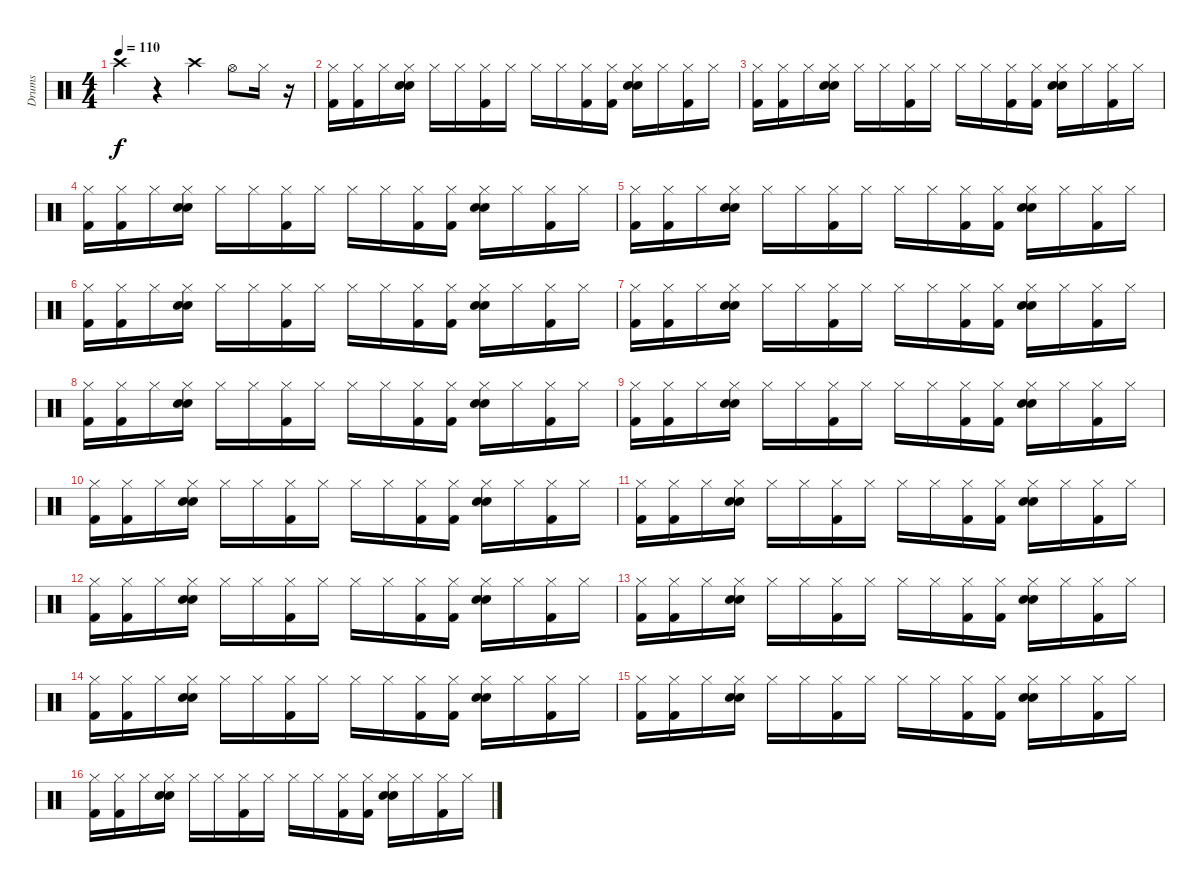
\track ("Drums" "Drums") {instrument percussion}
\staff {score}
\articulation defaults
\ts (4 4)
\tempo 110
\clef neutral
\ks c "Crash high (hit)".4{dy f}
r.4 "Crash high (hit)".4 "Hi-Hat (open)".8 "Hi-Hat (closed)".16 r.16 |
("Hi-Hat (closed)" "Kick (hit) 2").16 ("Hi-Hat (closed)" "Kick (hit) 2").16 "Hi-Hat (closed)".16 ("Hi-Hat (closed)" "Electric Snare (hit)" "Snare (hit) 2").16 "Hi-Hat (closed)".16 "Hi-Hat (closed)".16 ("Hi-Hat (closed)" "Kick (hit) 2").16 "Hi-Hat (closed)".16 "Hi-Hat (closed)".16 "Hi-Hat (closed)".16 ("Hi-Hat (closed)" "Kick (hit) 2").16 ("Hi-Hat (closed)" "Kick (hit) 2").16 ("Hi-Hat (closed)" "Electric Snare (hit)" "Snare (hit) 2").16 "Hi-Hat (closed)".16 ("Hi-Hat (closed)" "Kick (hit) 2").16 "Hi-Hat (closed)".16 |
("Hi-Hat (closed)" "Kick (hit) 2").16 ("Hi-Hat (closed)" "Kick (hit) 2").16 "Hi-Hat (closed)".16 ("Hi-Hat (closed)" "Electric Snare (hit)" "Snare (hit) 2").16 "Hi-Hat (closed)".16 "Hi-Hat (closed)".16 ("Hi-Hat (closed)" "Kick (hit) 2").16 "Hi-Hat (closed)".16 "Hi-Hat (closed)".16 "Hi-Hat (closed)".16 ("Hi-Hat (closed)" "Kick (hit) 2").16 ("Hi-Hat (closed)" "Kick (hit) 2").16 ("Hi-Hat (closed)" "Electric Snare (hit)" "Snare (hit) 2").16 "Hi-Hat (closed)".16 ("Hi-Hat (closed)" "Kick (hit) 2").16 "Hi-Hat (closed)".16 |
("Hi-Hat (closed)" "Kick (hit) 2").16 ("Hi-Hat (closed)" "Kick (hit) 2").16 "Hi-Hat (closed)".16 ("Hi-Hat (closed)" "Electric Snare (hit)" "Snare (hit) 2").16 "Hi-Hat (closed)".16 "Hi-Hat (closed)".16 ("Hi-Hat (closed)" "Kick (hit) 2").16 "Hi-Hat (closed)".16 "Hi-Hat (closed)".16 "Hi-Hat (closed)".16 ("Hi-Hat (closed)" "Kick (hit) 2").16 ("Hi-Hat (closed)" "Kick (hit) 2").16 ("Hi-Hat (closed)" "Electric Snare (hit)" "Snare (hit) 2").16 "Hi-Hat (closed)".16 ("Hi-Hat (closed)" "Kick (hit) 2").16 "Hi-Hat (closed)".16 |
("Hi-Hat (closed)" "Kick (hit) 2").16 ("Hi-Hat (closed)" "Kick (hit) 2").16 "Hi-Hat (closed)".16 ("Hi-Hat (closed)" "Electric Snare (hit)" "Snare (hit) 2").16 "Hi-Hat (closed)".16 "Hi-Hat (closed)".16 ("Hi-Hat (closed)" "Kick (hit) 2").16 "Hi-Hat (closed)".16 "Hi-Hat (closed)".16 "Hi-Hat (closed)".16 ("Hi-Hat (closed)" "Kick (hit) 2").16 ("Hi-Hat (closed)" "Kick (hit) 2").16 ("Hi-Hat (closed)" "Electric Snare (hit)" "Snare (hit) 2").16 "Hi-Hat (closed)".16 ("Hi-Hat (closed)" "Kick (hit) 2").16 "Hi-Hat (closed)".16 |
("Hi-Hat (closed)" "Kick (hit) 2").16 ("Hi-Hat (closed)" "Kick (hit) 2").16 "Hi-Hat (closed)".16 ("Hi-Hat (closed)" "Electric Snare (hit)" "Snare (hit) 2").16 "Hi-Hat (closed)".16 "Hi-Hat (closed)".16 ("Hi-Hat (closed)" "Kick (hit) 2").16 "Hi-Hat (closed)".16 "Hi-Hat (closed)".16 "Hi-Hat (closed)".16 ("Hi-Hat (closed)" "Kick (hit) 2").16 ("Hi-Hat (closed)" "Kick (hit) 2").16 ("Hi-Hat (closed)" "Electric Snare (hit)" "Snare (hit) 2").16 "Hi-Hat (closed)".16 ("Hi-Hat (closed)" "Kick (hit) 2").16 "Hi-Hat (closed)".16 |
("Hi-Hat (closed)" "Kick (hit) 2").16 ("Hi-Hat (closed)" "Kick (hit) 2").16 "Hi-Hat (closed)".16 ("Hi-Hat (closed)" "Electric Snare (hit)" "Snare (hit) 2").16 "Hi-Hat (closed)".16 "Hi-Hat (closed)".16 ("Hi-Hat (closed)" "Kick (hit) 2").16 "Hi-Hat (closed)".16 "Hi-Hat (closed)".16 "Hi-Hat (closed)".16 ("Hi-Hat (closed)" "Kick (hit) 2").16 ("Hi-Hat (closed)" "Kick (hit) 2").16 ("Hi-Hat (closed)" "Electric Snare (hit)" "Snare (hit) 2").16 "Hi-Hat (closed)".16 ("Hi-Hat (closed)" "Kick (hit) 2").16 "Hi-Hat (closed)".16 |
("Hi-Hat (closed)" "Kick (hit) 2").16 ("Hi-Hat (closed)" "Kick (hit) 2").16 "Hi-Hat (closed)".16 ("Hi-Hat (closed)" "Electric Snare (hit)" "Snare (hit) 2").16 "Hi-Hat (closed)".16 "Hi-Hat (closed)".16 ("Hi-Hat (closed)" "Kick (hit) 2").16 "Hi-Hat (closed)".16 "Hi-Hat (closed)".16 "Hi-Hat (closed)".16 ("Hi-Hat (closed)" "Kick (hit) 2").16 ("Hi-Hat (closed)" "Kick (hit) 2").16 ("Hi-Hat (closed)" "Electric Snare (hit)" "Snare (hit) 2").16 "Hi-Hat (closed)".16 ("Hi-Hat (closed)" "Kick (hit) 2").16 "Hi-Hat (closed)".16 |
("Hi-Hat (closed)" "Kick (hit) 2").16 ("Hi-Hat (closed)" "Kick (hit) 2").16 "Hi-Hat (closed)".16 ("Hi-Hat (closed)" "Electric Snare (hit)" "Snare (hit) 2").16 "Hi-Hat (closed)".16 "Hi-Hat (closed)".16 ("Hi-Hat (closed)" "Kick (hit) 2").16 "Hi-Hat (closed)".16 "Hi-Hat (closed)".16 "Hi-Hat (closed)".16 ("Hi-Hat (closed)" "Kick (hit) 2").16 ("Hi-Hat (closed)" "Kick (hit) 2").16 ("Hi-Hat (closed)" "Electric Snare (hit)" "Snare (hit) 2").16 "Hi-Hat (closed)".16 ("Hi-Hat (closed)" "Kick (hit) 2").16 "Hi-Hat (closed)".16 |
("Hi-Hat (closed)" "Kick (hit) 2").16 ("Hi-Hat (closed)" "Kick (hit) 2").16 "Hi-Hat (closed)".16 ("Hi-Hat (closed)" "Electric Snare (hit)" "Snare (hit) 2").16 "Hi-Hat (closed)".16 "Hi-Hat (closed)".16 ("Hi-Hat (closed)" "Kick (hit) 2").16 "Hi-Hat (closed)".16 "Hi-Hat (closed)".16 "Hi-Hat (closed)".16 ("Hi-Hat (closed)" "Kick (hit) 2").16 ("Hi-Hat (closed)" "Kick (hit) 2").16 ("Hi-Hat (closed)" "Electric Snare (hit)" "Snare (hit) 2").16 "Hi-Hat (closed)".16 ("Hi-Hat (closed)" "Kick (hit) 2").16 "Hi-Hat (closed)".16 |
("Hi-Hat (closed)" "Kick (hit) 2").16 ("Hi-Hat (closed)" "Kick (hit) 2").16 "Hi-Hat (closed)".16 ("Hi-Hat (closed)" "Electric Snare (hit)" "Snare (hit) 2").16 "Hi-Hat (closed)".16 "Hi-Hat (closed)".16 ("Hi-Hat (closed)" "Kick (hit) 2").16 "Hi-Hat (closed)".16 "Hi-Hat (closed)".16 "Hi-Hat (closed)".16 ("Hi-Hat (closed)" "Kick (hit) 2").16 ("Hi-Hat (closed)" "Kick (hit) 2").16 ("Hi-Hat (closed)" "Electric Snare (hit)" "Snare (hit) 2").16 "Hi-Hat (closed)".16 ("Hi-Hat (closed)" "Kick (hit) 2").16 "Hi-Hat (closed)".16 |
("Hi-Hat (closed)" "Kick (hit) 2").16 ("Hi-Hat (closed)" "Kick (hit) 2").16 "Hi-Hat (closed)".16 ("Hi-Hat (closed)" "Electric Snare (hit)" "Snare (hit) 2").16 "Hi-Hat (closed)".16 "Hi-Hat (closed)".16 ("Hi-Hat (closed)" "Kick (hit) 2").16 "Hi-Hat (closed)".16 "Hi-Hat (closed)".16 "Hi-Hat (closed)".16 ("Hi-Hat (closed)" "Kick (hit) 2").16 ("Hi-Hat (closed)" "Kick (hit) 2").16 ("Hi-Hat (closed)" "Electric Snare (hit)" "Snare (hit) 2").16 "Hi-Hat (closed)".16 ("Hi-Hat (closed)" "Kick (hit) 2").16 "Hi-Hat (closed)".16 |
("Hi-Hat (closed)" "Kick (hit) 2").16 ("Hi-Hat (closed)" "Kick (hit) 2").16 "Hi-Hat (closed)".16 ("Hi-Hat (closed)" "Electric Snare (hit)" "Snare (hit) 2").16 "Hi-Hat (closed)".16 "Hi-Hat (closed)".16 ("Hi-Hat (closed)" "Kick (hit) 2").16 "Hi-Hat (closed)".16 "Hi-Hat (closed)".16 "Hi-Hat (closed)".16 ("Hi-Hat (closed)" "Kick (hit) 2").16 ("Hi-Hat (closed)" "Kick (hit) 2").16 ("Hi-Hat (closed)" "Electric Snare (hit)" "Snare (hit) 2").16 "Hi-Hat (closed)".16 ("Hi-Hat (closed)" "Kick (hit) 2").16 "Hi-Hat (closed)".16 |
("Hi-Hat (closed)" "Kick (hit) 2").16 ("Hi-Hat (closed)" "Kick (hit) 2").16 "Hi-Hat (closed)".16 ("Hi-Hat (closed)" "Electric Snare (hit)" "Snare (hit) 2").16 "Hi-Hat (closed)".16 "Hi-Hat (closed)".16 ("Hi-Hat (closed)" "Kick (hit) 2").16 "Hi-Hat (closed)".16 "Hi-Hat (closed)".16 "Hi-Hat (closed)".16 ("Hi-Hat (closed)" "Kick (hit) 2").16 ("Hi-Hat (closed)" "Kick (hit) 2").16 ("Hi-Hat (closed)" "Electric Snare (hit)" "Snare (hit) 2").16 "Hi-Hat (closed)".16 ("Hi-Hat (closed)" "Kick (hit) 2").16 "Hi-Hat (closed)".16 |
("Hi-Hat (closed)" "Kick (hit) 2").16 ("Hi-Hat (closed)" "Kick (hit) 2").16 "Hi-Hat (closed)".16 ("Hi-Hat (closed)" "Electric Snare (hit)" "Snare (hit) 2").16 "Hi-Hat (closed)".16 "Hi-Hat (closed)".16 ("Hi-Hat (closed)" "Kick (hit) 2").16 "Hi-Hat (closed)".16 "Hi-Hat (closed)".16 "Hi-Hat (closed)".16 ("Hi-Hat (closed)" "Kick (hit) 2").16 ("Hi-Hat (closed)" "Kick (hit) 2").16 ("Hi-Hat (closed)" "Electric Snare (hit)" "Snare (hit) 2").16 "Hi-Hat (closed)".16 ("Hi-Hat (closed)" "Kick (hit) 2").16 "Hi-Hat (closed)".16 |
("Hi-Hat (closed)" "Kick (hit) 2").16 ("Hi-Hat (closed)" "Kick (hit) 2").16 "Hi-Hat (closed)".16 ("Hi-Hat (closed)" "Electric Snare (hit)" "Snare (hit) 2").16 "Hi-Hat (closed)".16 "Hi-Hat (closed)".16 ("Hi-Hat (closed)" "Kick (hit) 2").16 "Hi-Hat (closed)".16 "Hi-Hat (closed)".16 "Hi-Hat (closed)".16 ("Hi-Hat (closed)" "Kick (hit) 2").16 ("Hi-Hat (closed)" "Kick (hit) 2").16 ("Hi-Hat (closed)" "Electric Snare (hit)" "Snare (hit) 2").16 "Hi-Hat (closed)".16 ("Hi-Hat (closed)" "Kick (hit) 2").16 "Hi-Hat (closed)".16
